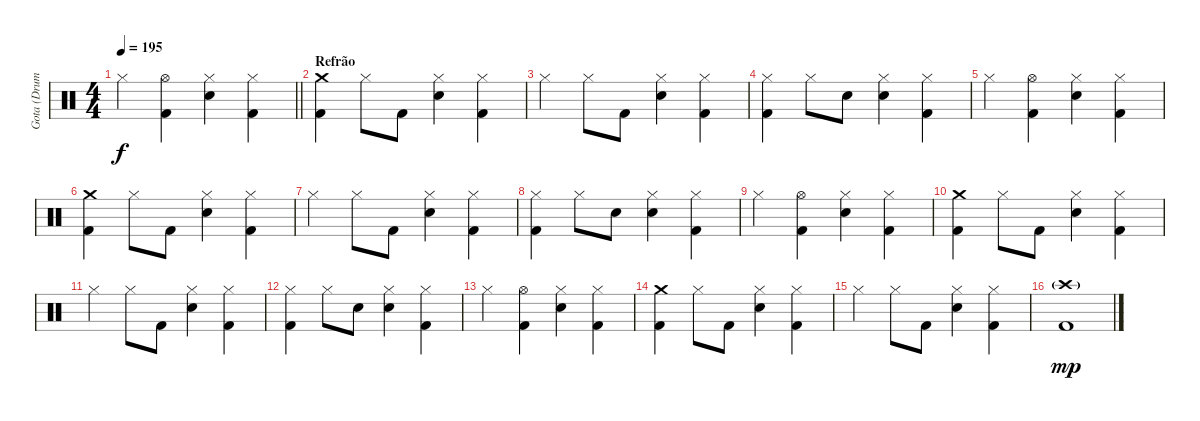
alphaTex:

\track ("Gota (Drums)" "Gota (Drum") {instrument percussion}
\staff {score}
\articulation defaults
\ts (4 4)
\tempo 195
\clef neutral
\barLineRight lightlight
\ks c "Hi-Hat (closed)".4{dy f}
("Hi-Hat (open)" "Kick (hit) 2").4 ("Hi-Hat (closed)" "Electric Snare (hit)").4 ("Hi-Hat (closed)" "Kick (hit) 2").4 |
\section ("" "Refrão")
("Crash medium (hit)" "Kick (hit) 2").4 "Hi-Hat (closed)".8 "Kick (hit) 2".8 ("Hi-Hat (closed)" "Electric Snare (hit)").4 ("Hi-Hat (closed)" "Kick (hit) 2").4 |
"Hi-Hat (closed)".4 "Hi-Hat (closed)".8 "Kick (hit) 2".8 ("Hi-Hat (closed)" "Electric Snare (hit)").4 ("Hi-Hat (closed)" "Kick (hit) 2").4 |
("Hi-Hat (closed)" "Kick (hit) 2").4 "Hi-Hat (closed)".8 "Electric Snare (hit)".8 ("Hi-Hat (closed)" "Electric Snare (hit)").4 ("Hi-Hat (closed)" "Kick (hit) 2").4 |
"Hi-Hat (closed)".4 ("Hi-Hat (open)" "Kick (hit) 2").4 ("Hi-Hat (closed)" "Electric Snare (hit)").4 ("Hi-Hat (closed)" "Kick (hit) 2").4 |
("Crash medium (hit)" "Kick (hit) 2").4 "Hi-Hat (closed)".8 "Kick (hit) 2".8 ("Hi-Hat (closed)" "Electric Snare (hit)").4 ("Hi-Hat (closed)" "Kick (hit) 2").4 |
"Hi-Hat (closed)".4 "Hi-Hat (closed)".8 "Kick (hit) 2".8 ("Hi-Hat (closed)" "Electric Snare (hit)").4 ("Hi-Hat (closed)" "Kick (hit) 2").4 |
("Hi-Hat (closed)" "Kick (hit) 2").4 "Hi-Hat (closed)".8 "Electric Snare (hit)".8 ("Hi-Hat (closed)" "Electric Snare (hit)").4 ("Hi-Hat (closed)" "Kick (hit) 2").4 |
"Hi-Hat (closed)".4 ("Hi-Hat (open)" "Kick (hit) 2").4 ("Hi-Hat (closed)" "Electric Snare (hit)").4 ("Hi-Hat (closed)" "Kick (hit) 2").4 |
("Crash medium (hit)" "Kick (hit) 2").4 "Hi-Hat (closed)".8 "Kick (hit) 2".8 ("Hi-Hat (closed)" "Electric Snare (hit)").4 ("Hi-Hat (closed)" "Kick (hit) 2").4 |
"Hi-Hat (closed)".4 "Hi-Hat (closed)".8 "Kick (hit) 2".8 ("Hi-Hat (closed)" "Electric Snare (hit)").4 ("Hi-Hat (closed)" "Kick (hit) 2").4 |
("Hi-Hat (closed)" "Kick (hit) 2").4 "Hi-Hat (closed)".8 "Electric Snare (hit)".8 ("Hi-Hat (closed)" "Electric Snare (hit)").4 ("Hi-Hat (closed)" "Kick (hit) 2").4 |
"Hi-Hat (closed)".4 ("Hi-Hat (open)" "Kick (hit) 2").4 ("Hi-Hat (closed)" "Electric Snare (hit)").4 ("Hi-Hat (closed)" "Kick (hit) 2").4 |
("Crash medium (hit)" "Kick (hit) 2").4 "Hi-Hat (closed)".8 "Kick (hit) 2".8 ("Hi-Hat (closed)" "Electric Snare (hit)").4 ("Hi-Hat (closed)" "Kick (hit) 2").4 |
"Hi-Hat (closed)".4 "Hi-Hat (closed)".8 "Kick (hit) 2".8 ("Hi-Hat (closed)" "Electric Snare (hit)").4 ("Hi-Hat (closed)" "Kick (hit) 2").4 |
("Crash high (hit)"{g} "Kick (hit) 2").1{dy mp}
